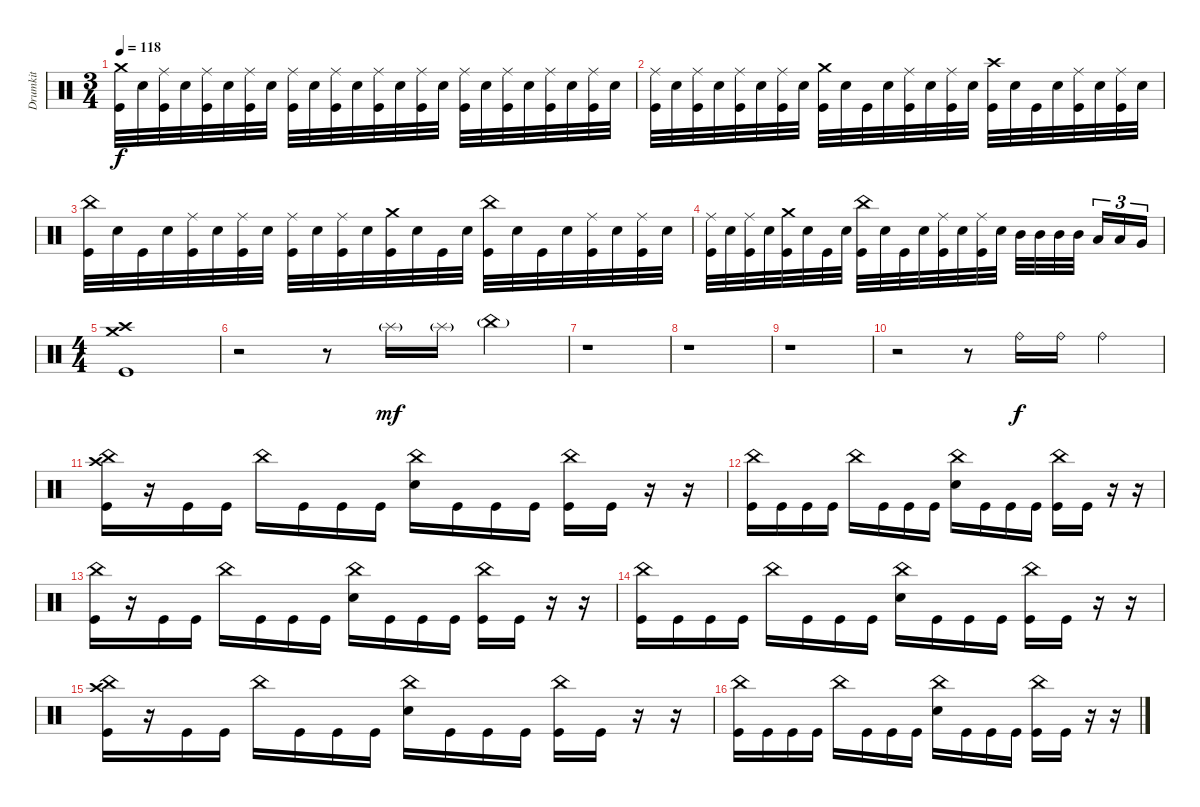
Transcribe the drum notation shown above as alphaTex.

\track ("Drumkit" "Drumkit") {instrument percussion}
\staff {score}
\articulation defaults
\ts (3 4)
\tempo 118
\clef neutral
\ks c
("Kick (hit)" "Crash medium (hit)").32{dy f} "Snare (hit) 2".32 ("Kick (hit)" "Ride (middle)").32 "Snare (hit) 2".32 ("Kick (hit)" "Ride (middle)").32 "Snare (hit) 2".32 ("Kick (hit)" "Ride (middle)").32 "Snare (hit) 2".32 ("Kick (hit)" "Ride (middle)").32 "Snare (hit) 2".32 ("Kick (hit)" "Ride (middle)").32 "Snare (hit) 2".32 ("Kick (hit)" "Ride (middle)").32 "Snare (hit) 2".32 ("Kick (hit)" "Ride (middle)").32 "Snare (hit) 2".32 ("Kick (hit)" "Ride (middle)").32 "Snare (hit) 2".32 ("Kick (hit)" "Ride (middle)").32 "Snare (hit) 2".32 ("Kick (hit)" "Ride (middle)").32 "Snare (hit) 2".32 ("Kick (hit)" "Ride (middle)").32 "Snare (hit) 2".32 |
("Kick (hit)" "Ride (middle)").32 "Snare (hit) 2".32 ("Kick (hit)" "Ride (middle)").32 "Snare (hit) 2".32 ("Kick (hit)" "Ride (middle)").32 "Snare (hit) 2".32 ("Kick (hit)" "Ride (middle)").32 "Snare (hit) 2".32 ("Kick (hit)" "Crash medium (hit)").32 "Snare (hit) 2".32 "Kick (hit)".32 "Snare (hit) 2".32 ("Kick (hit)" "Ride (middle)").32 "Snare (hit) 2".32 ("Kick (hit)" "Ride (middle)").32 "Snare (hit) 2".32 ("Kick (hit)" "Crash high (hit)").32 "Snare (hit) 2".32 "Kick (hit)".32 "Snare (hit) 2".32 ("Kick (hit)" "Ride (middle)").32 "Snare (hit) 2".32 ("Kick (hit)" "Ride (middle)").32 "Snare (hit) 2".32 |
("Kick (hit)" "China (hit)").32 "Snare (hit) 2".32 "Kick (hit)".32 "Snare (hit) 2".32 ("Kick (hit)" "Ride (middle)").32 "Snare (hit) 2".32 ("Kick (hit)" "Ride (middle)").32 "Snare (hit) 2".32 ("Kick (hit)" "Ride (middle)").32 "Snare (hit) 2".32 ("Kick (hit)" "Ride (middle)").32 "Snare (hit) 2".32 ("Kick (hit)" "Crash medium (hit)").32 "Snare (hit) 2".32 "Kick (hit)".32 "Snare (hit) 2".32 ("Kick (hit)" "China (hit)").32 "Snare (hit) 2".32 "Kick (hit)".32 "Snare (hit) 2".32 ("Kick (hit)" "Ride (middle)").32 "Snare (hit) 2".32 ("Kick (hit)" "Ride (middle)").32 "Snare (hit) 2".32 |
("Kick (hit)" "Ride (middle)").32 "Snare (hit) 2".32 ("Kick (hit)" "Ride (middle)").32 "Snare (hit) 2".32 ("Kick (hit)" "Crash medium (hit)").32 "Snare (hit) 2".32 "Kick (hit)".32 "Snare (hit) 2".32 ("Kick (hit)" "China (hit)").32 "Snare (hit) 2".32 "Kick (hit)".32 "Snare (hit) 2".32 ("Kick (hit)" "Ride (middle)").32 "Snare (hit) 2".32 ("Kick (hit)" "Ride (middle)").32 "Snare (hit) 2".32 "Mid Tom (hit)".32 "Mid Tom (hit)".32 "Mid Tom (hit)".32 "Mid Tom (hit)".32 "Low Tom (hit)".16{tu (3 2)} "Low Tom (hit)".16{tu (3 2)} "Very Low Tom (hit)".16{tu (3 2)} |
\ts (4 4)
("Kick (hit)" "Crash high (hit)" "Crash medium (hit)").1 |
r.2 r.8 "Splash (hit)"{g}.16{dy mf} "Splash (hit)"{g}.16 "China (hit)"{g}.4 |
r.1 |
r.1 |
r.1 |
r.2 r.8 "Ride (bell)".16{dy f} "Ride (bell)".16 "Ride (bell)".4 |
("Kick (hit)" "Crash high (hit)" "China (hit)").16 r.16 "Kick (hit)".16 "Kick (hit)".16 "China (hit)".16 "Kick (hit)".16 "Kick (hit)".16 "Kick (hit)".16 ("China (hit)" "Snare (hit) 2").16 "Kick (hit)".16 "Kick (hit)".16 "Kick (hit)".16 ("Kick (hit)" "China (hit)").16 "Kick (hit)".16 r.16 r.16 |
("Kick (hit)" "China (hit)").16 "Kick (hit)".16 "Kick (hit)".16 "Kick (hit)".16 "China (hit)".16 "Kick (hit)".16 "Kick (hit)".16 "Kick (hit)".16 ("China (hit)" "Snare (hit) 2").16 "Kick (hit)".16 "Kick (hit)".16 "Kick (hit)".16 ("Kick (hit)" "China (hit)").16 "Kick (hit)".16 r.16 r.16 |
("Kick (hit)" "China (hit)").16 r.16 "Kick (hit)".16 "Kick (hit)".16 "China (hit)".16 "Kick (hit)".16 "Kick (hit)".16 "Kick (hit)".16 ("China (hit)" "Snare (hit) 2").16 "Kick (hit)".16 "Kick (hit)".16 "Kick (hit)".16 ("Kick (hit)" "China (hit)").16 "Kick (hit)".16 r.16 r.16 |
("Kick (hit)" "China (hit)").16 "Kick (hit)".16 "Kick (hit)".16 "Kick (hit)".16 "China (hit)".16 "Kick (hit)".16 "Kick (hit)".16 "Kick (hit)".16 ("China (hit)" "Snare (hit) 2").16 "Kick (hit)".16 "Kick (hit)".16 "Kick (hit)".16 ("Kick (hit)" "China (hit)").16 "Kick (hit)".16 r.16 r.16 |
("Kick (hit)" "Crash high (hit)" "China (hit)").16 r.16 "Kick (hit)".16 "Kick (hit)".16 "China (hit)".16 "Kick (hit)".16 "Kick (hit)".16 "Kick (hit)".16 ("China (hit)" "Snare (hit) 2").16 "Kick (hit)".16 "Kick (hit)".16 "Kick (hit)".16 ("Kick (hit)" "China (hit)").16 "Kick (hit)".16 r.16 r.16 |
("Kick (hit)" "China (hit)").16 "Kick (hit)".16 "Kick (hit)".16 "Kick (hit)".16 "China (hit)".16 "Kick (hit)".16 "Kick (hit)".16 "Kick (hit)".16 ("China (hit)" "Snare (hit) 2").16 "Kick (hit)".16 "Kick (hit)".16 "Kick (hit)".16 ("Kick (hit)" "China (hit)").16 "Kick (hit)".16 r.16 r.16
